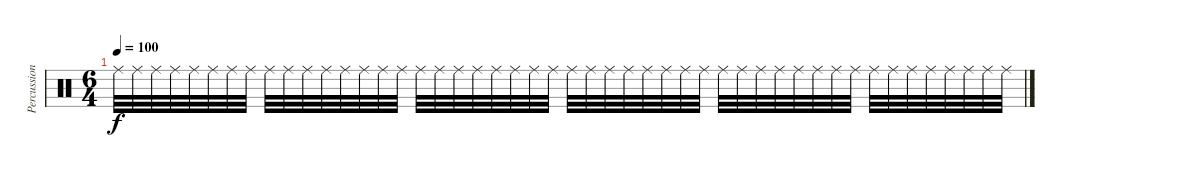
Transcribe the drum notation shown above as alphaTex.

\track ("Percussion 2" "Percussion") {instrument percussion}
\staff {score}
\articulation defaults
\ts (6 4)
\tempo 100
\clef neutral
\ks c "Ride (middle)".32{dy f} "Ride (middle)".32 "Ride (middle)".32 "Ride (middle)".32 "Ride (middle)".32 "Ride (middle)".32 "Ride (middle)".32 "Ride (middle)".32 "Ride (middle)".32 "Ride (middle)".32 "Ride (middle)".32 "Ride (middle)".32 "Ride (middle)".32 "Ride (middle)".32 "Ride (middle)".32 "Ride (middle)".32 "Ride (middle)".32 "Ride (middle)".32 "Ride (middle)".32 "Ride (middle)".32 "Ride (middle)".32 "Ride (middle)".32 "Ride (middle)".32 "Ride (middle)".32 "Ride (middle)".32 "Ride (middle)".32 "Ride (middle)".32 "Ride (middle)".32 "Ride (middle)".32 "Ride (middle)".32 "Ride (middle)".32 "Ride (middle)".32 "Ride (middle)".32 "Ride (middle)".32 "Ride (middle)".32 "Ride (middle)".32 "Ride (middle)".32 "Ride (middle)".32 "Ride (middle)".32 "Ride (middle)".32 "Ride (middle)".32 "Ride (middle)".32 "Ride (middle)".32 "Ride (middle)".32 "Ride (middle)".32 "Ride (middle)".32 "Ride (middle)".32 "Ride (middle)".32
